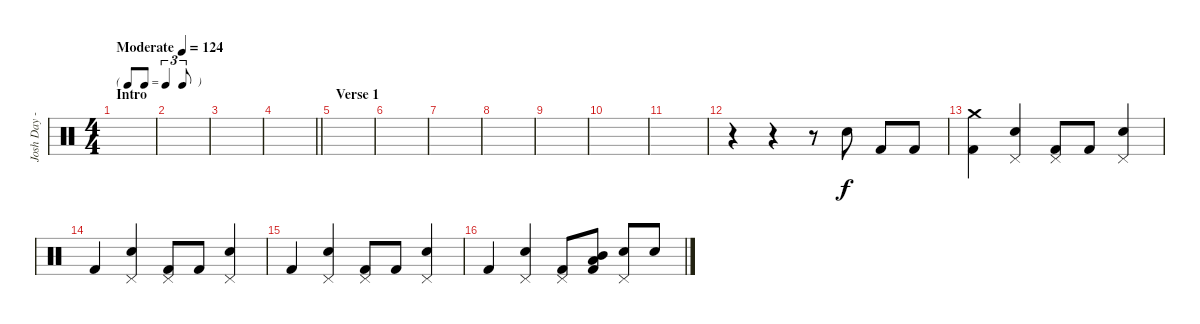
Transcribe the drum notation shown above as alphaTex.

\track ("Josh Day - Drums/Percussion" "Josh Day -") {instrument percussion}
\staff {score}
\articulation defaults
\ts (4 4)
\tf triplet8th
\section ("" "Intro")
\tempo (124 "Moderate")
\clef neutral
\ks c
|
|
|
\barLineRight lightlight
|
\section ("" "Verse 1")
|
|
|
|
|
|
|
r.4 r.4 r.8 "Snare (hit) 2".8 "Kick (hit) 2".8 "Kick (hit) 2".8 |
("Crash medium (hit)" "Kick (hit) 2").4 ("Snare (hit) 2" "Pedal Hi-Hat (hit)").4 ("Pedal Hi-Hat (hit)" "Kick (hit) 2").8 "Kick (hit) 2".8 ("Snare (hit) 2" "Pedal Hi-Hat (hit)").4 |
"Kick (hit) 2".4 ("Snare (hit) 2" "Pedal Hi-Hat (hit)").4 ("Pedal Hi-Hat (hit)" "Kick (hit) 2").8 "Kick (hit) 2".8 ("Snare (hit) 2" "Pedal Hi-Hat (hit)").4 |
"Kick (hit) 2".4 ("Snare (hit) 2" "Pedal Hi-Hat (hit)").4 ("Pedal Hi-Hat (hit)" "Kick (hit) 2").8 "Kick (hit) 2".8 ("Snare (hit) 2" "Pedal Hi-Hat (hit)").4 |
"Kick (hit) 2".4 ("Snare (hit) 2" "Pedal Hi-Hat (hit)").4 ("Pedal Hi-Hat (hit)" "Kick (hit) 2").8 ("Mid Tom (hit)" "Low Tom (hit)" "Kick (hit) 2").8 ("Snare (hit) 2" "Pedal Hi-Hat (hit)").8 "Snare (hit) 2".8
